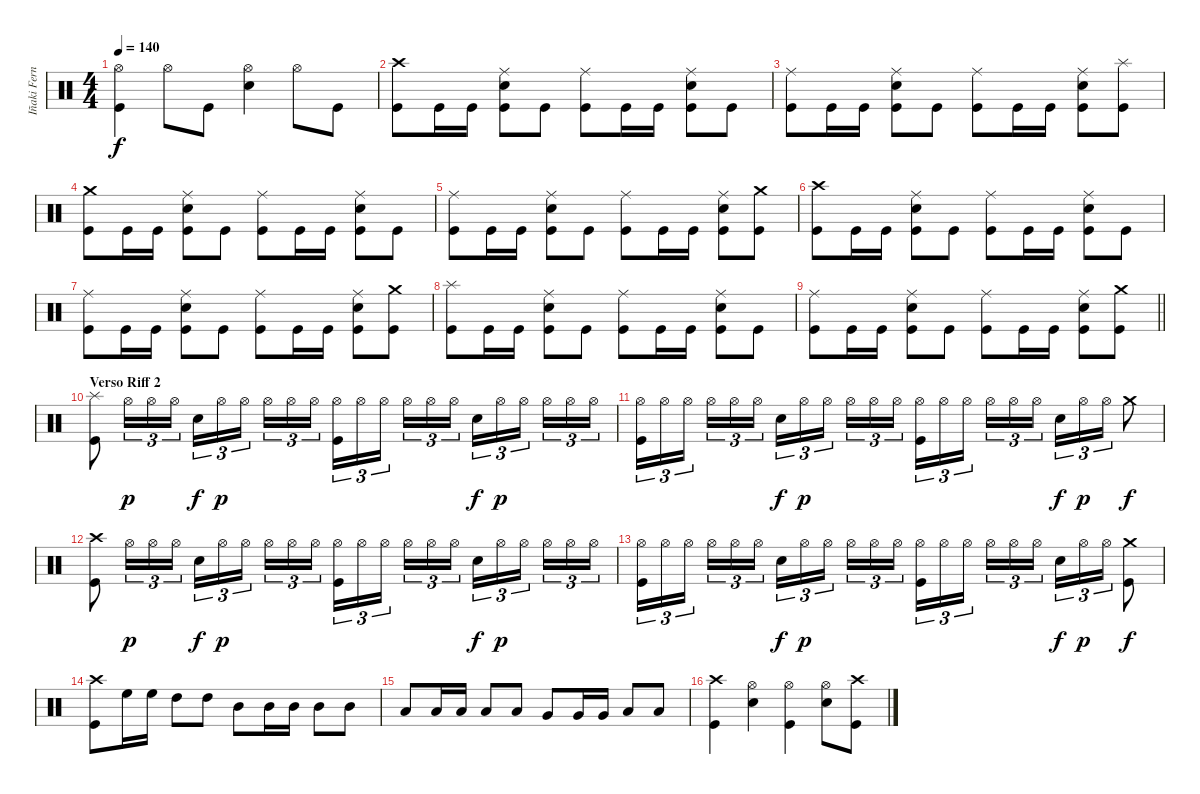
\track ("Iñaki Fernández" "Iñaki Fern") {instrument percussion}
\staff {score}
\articulation defaults
\ts (4 4)
\tempo 140
\clef neutral
\ks c
("Hi-Hat (open)" "Kick (hit)").4{dy f} "Hi-Hat (open)".8 "Kick (hit)".8 ("Hi-Hat (open)" "Snare (hit) 2").4 "Hi-Hat (open)".8 "Kick (hit)".8 |
("Crash high (hit)" "Kick (hit)").8 "Kick (hit)".16 "Kick (hit)".16 ("Ride (middle)" "Snare (hit) 2" "Kick (hit)").8 "Kick (hit)".8 ("Ride (middle)" "Kick (hit)").8 "Kick (hit)".16 "Kick (hit)".16 ("Ride (middle)" "Snare (hit) 2" "Kick (hit)").8 "Kick (hit)".8 |
("Ride (middle)" "Kick (hit)").8 "Kick (hit)".16 "Kick (hit)".16 ("Ride (middle)" "Snare (hit) 2" "Kick (hit)").8 "Kick (hit)".8 ("Ride (middle)" "Kick (hit)").8 "Kick (hit)".16 "Kick (hit)".16 ("Ride (middle)" "Snare (hit) 2" "Kick (hit)").8 ("Splash (hit)" "Kick (hit)").8 |
("Crash medium (hit)" "Kick (hit)").8 "Kick (hit)".16 "Kick (hit)".16 ("Ride (middle)" "Snare (hit) 2" "Kick (hit)").8 "Kick (hit)".8 ("Ride (middle)" "Kick (hit)").8 "Kick (hit)".16 "Kick (hit)".16 ("Ride (middle)" "Snare (hit) 2" "Kick (hit)").8 "Kick (hit)".8 |
("Ride (middle)" "Kick (hit)").8 "Kick (hit)".16 "Kick (hit)".16 ("Ride (middle)" "Snare (hit) 2" "Kick (hit)").8 "Kick (hit)".8 ("Ride (middle)" "Kick (hit)").8 "Kick (hit)".16 "Kick (hit)".16 ("Ride (middle)" "Snare (hit) 2" "Kick (hit)").8 ("Crash medium (hit)" "Kick (hit)").8 |
("Crash high (hit)" "Kick (hit)").8 "Kick (hit)".16 "Kick (hit)".16 ("Ride (middle)" "Snare (hit) 2" "Kick (hit)").8 "Kick (hit)".8 ("Ride (middle)" "Kick (hit)").8 "Kick (hit)".16 "Kick (hit)".16 ("Ride (middle)" "Snare (hit) 2" "Kick (hit)").8 "Kick (hit)".8 |
("Ride (middle)" "Kick (hit)").8 "Kick (hit)".16 "Kick (hit)".16 ("Ride (middle)" "Snare (hit) 2" "Kick (hit)").8 "Kick (hit)".8 ("Ride (middle)" "Kick (hit)").8 "Kick (hit)".16 "Kick (hit)".16 ("Ride (middle)" "Snare (hit) 2" "Kick (hit)").8 ("Crash medium (hit)" "Kick (hit)").8 |
("Splash (hit)" "Kick (hit)").8 "Kick (hit)".16 "Kick (hit)".16 ("Ride (middle)" "Snare (hit) 2" "Kick (hit)").8 "Kick (hit)".8 ("Ride (middle)" "Kick (hit)").8 "Kick (hit)".16 "Kick (hit)".16 ("Ride (middle)" "Snare (hit) 2" "Kick (hit)").8 "Kick (hit)".8 |
\barLineRight lightlight
("Ride (middle)" "Kick (hit)").8 "Kick (hit)".16 "Kick (hit)".16 ("Ride (middle)" "Snare (hit) 2" "Kick (hit)").8 "Kick (hit)".8 ("Ride (middle)" "Kick (hit)").8 "Kick (hit)".16 "Kick (hit)".16 ("Ride (middle)" "Snare (hit) 2" "Kick (hit)").8 ("Crash medium (hit)" "Kick (hit)").8 |
\section ("" "Verso Riff 2")
("Splash (hit)" "Kick (hit)").8 "Hi-Hat (open)".16{tu (3 2) dy p} "Hi-Hat (open)".16{tu (3 2)} "Hi-Hat (open)".16{tu (3 2)} "Snare (hit) 2".16{tu (3 2) dy f} "Hi-Hat (open)".16{tu (3 2) dy p} "Hi-Hat (open)".16{tu (3 2) beam splitsecondary} "Hi-Hat (open)".16{tu (3 2)} "Hi-Hat (open)".16{tu (3 2)} "Hi-Hat (open)".16{tu (3 2)} ("Hi-Hat (open)" "Kick (hit)").16{tu (3 2)} "Hi-Hat (open)".16{tu (3 2)} "Hi-Hat (open)".16{tu (3 2) beam splitsecondary} "Hi-Hat (open)".16{tu (3 2)} "Hi-Hat (open)".16{tu (3 2)} "Hi-Hat (open)".16{tu (3 2)} "Snare (hit) 2".16{tu (3 2) dy f} "Hi-Hat (open)".16{tu (3 2) dy p} "Hi-Hat (open)".16{tu (3 2) beam splitsecondary} "Hi-Hat (open)".16{tu (3 2)} "Hi-Hat (open)".16{tu (3 2)} "Hi-Hat (open)".16{tu (3 2)} |
("Hi-Hat (open)" "Kick (hit)").16{tu (3 2)} "Hi-Hat (open)".16{tu (3 2)} "Hi-Hat (open)".16{tu (3 2) beam splitsecondary} "Hi-Hat (open)".16{tu (3 2)} "Hi-Hat (open)".16{tu (3 2)} "Hi-Hat (open)".16{tu (3 2)} "Snare (hit) 2".16{tu (3 2) dy f} "Hi-Hat (open)".16{tu (3 2) dy p} "Hi-Hat (open)".16{tu (3 2) beam splitsecondary} "Hi-Hat (open)".16{tu (3 2)} "Hi-Hat (open)".16{tu (3 2)} "Hi-Hat (open)".16{tu (3 2)} ("Hi-Hat (open)" "Kick (hit)").16{tu (3 2)} "Hi-Hat (open)".16{tu (3 2)} "Hi-Hat (open)".16{tu (3 2) beam splitsecondary} "Hi-Hat (open)".16{tu (3 2)} "Hi-Hat (open)".16{tu (3 2)} "Hi-Hat (open)".16{tu (3 2)} "Snare (hit) 2".16{tu (3 2) dy f} "Hi-Hat (open)".16{tu (3 2) dy p} "Hi-Hat (open)".16{tu (3 2)} "Crash medium (hit)".8{dy f} |
("Crash high (hit)" "Kick (hit)").8 "Hi-Hat (open)".16{tu (3 2) dy p} "Hi-Hat (open)".16{tu (3 2)} "Hi-Hat (open)".16{tu (3 2)} "Snare (hit) 2".16{tu (3 2) dy f} "Hi-Hat (open)".16{tu (3 2) dy p} "Hi-Hat (open)".16{tu (3 2) beam splitsecondary} "Hi-Hat (open)".16{tu (3 2)} "Hi-Hat (open)".16{tu (3 2)} "Hi-Hat (open)".16{tu (3 2)} ("Hi-Hat (open)" "Kick (hit)").16{tu (3 2)} "Hi-Hat (open)".16{tu (3 2)} "Hi-Hat (open)".16{tu (3 2) beam splitsecondary} "Hi-Hat (open)".16{tu (3 2)} "Hi-Hat (open)".16{tu (3 2)} "Hi-Hat (open)".16{tu (3 2)} "Snare (hit) 2".16{tu (3 2) dy f} "Hi-Hat (open)".16{tu (3 2) dy p} "Hi-Hat (open)".16{tu (3 2) beam splitsecondary} "Hi-Hat (open)".16{tu (3 2)} "Hi-Hat (open)".16{tu (3 2)} "Hi-Hat (open)".16{tu (3 2)} |
("Hi-Hat (open)" "Kick (hit)").16{tu (3 2)} "Hi-Hat (open)".16{tu (3 2)} "Hi-Hat (open)".16{tu (3 2) beam splitsecondary} "Hi-Hat (open)".16{tu (3 2)} "Hi-Hat (open)".16{tu (3 2)} "Hi-Hat (open)".16{tu (3 2)} "Snare (hit) 2".16{tu (3 2) dy f} "Hi-Hat (open)".16{tu (3 2) dy p} "Hi-Hat (open)".16{tu (3 2) beam splitsecondary} "Hi-Hat (open)".16{tu (3 2)} "Hi-Hat (open)".16{tu (3 2)} "Hi-Hat (open)".16{tu (3 2)} ("Hi-Hat (open)" "Kick (hit)").16{tu (3 2)} "Hi-Hat (open)".16{tu (3 2)} "Hi-Hat (open)".16{tu (3 2) beam splitsecondary} "Hi-Hat (open)".16{tu (3 2)} "Hi-Hat (open)".16{tu (3 2)} "Hi-Hat (open)".16{tu (3 2)} "Snare (hit) 2".16{tu (3 2) dy f} "Hi-Hat (open)".16{tu (3 2) dy p} "Hi-Hat (open)".16{tu (3 2)} ("Crash medium (hit)" "Kick (hit)").8{dy f} |
("Crash high (hit)" "Kick (hit)").8 "High Floor Tom (hit)".16 "High Floor Tom (hit)".16 "High Tom (hit)".8 "High Tom (hit)".8 "Mid Tom (hit)".8 "Mid Tom (hit)".16 "Mid Tom (hit)".16 "Mid Tom (hit)".8 "Mid Tom (hit)".8 |
"Low Tom (hit)".8 "Low Tom (hit)".16 "Low Tom (hit)".16 "Low Tom (hit)".8 "Low Tom (hit)".8 "Very Low Tom (hit)".8 "Very Low Tom (hit)".16 "Very Low Tom (hit)".16 "Low Floor Tom (hit)".8 "Low Floor Tom (hit)".8 |
("Crash high (hit)" "Kick (hit)").4 ("Hi-Hat (open)" "Snare (hit) 2").4 ("Hi-Hat (open)" "Kick (hit)").4 ("Hi-Hat (open)" "Snare (hit) 2").8 ("Crash high (hit)" "Kick (hit)").8
